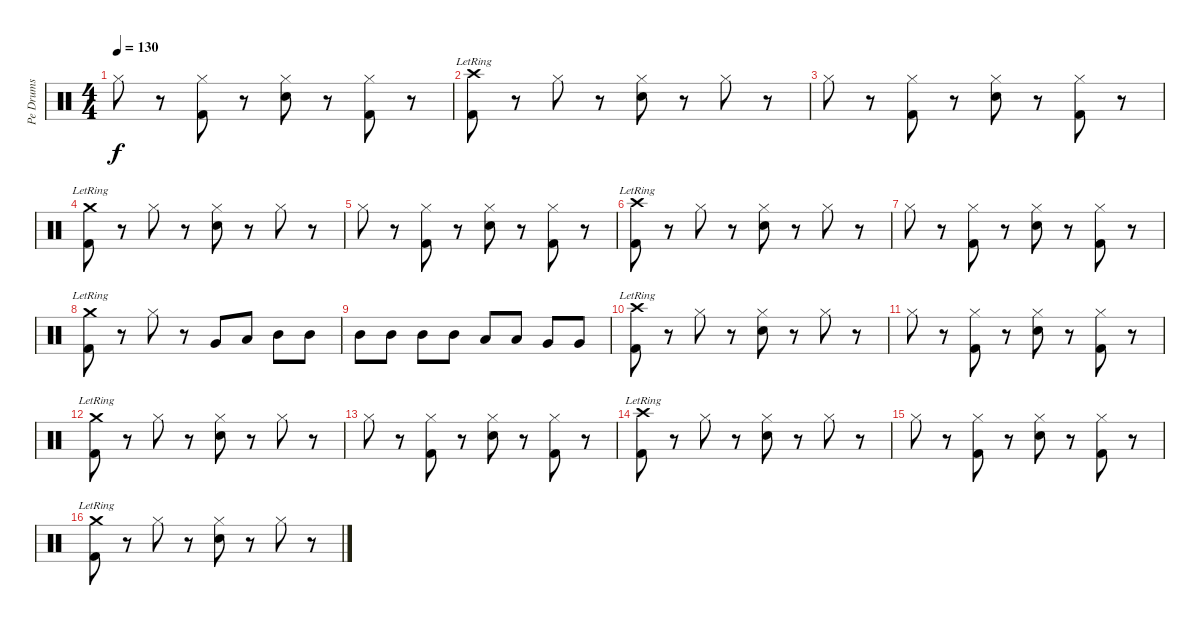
\track ("Pe Drums" "Pe Drums") {instrument percussion}
\staff {score}
\articulation defaults
\ts (4 4)
\tempo 130
\clef neutral
\ks c "Hi-Hat (closed)".8{dy f}
r.8 ("Hi-Hat (closed)" "Kick (hit) 2").8 r.8 ("Hi-Hat (closed)" "Electric Snare (hit)").8 r.8 ("Hi-Hat (closed)" "Kick (hit) 2").8 r.8 |
("Crash high (hit)"{lr} "Kick (hit) 2").8 r.8 "Hi-Hat (closed)".8 r.8 ("Hi-Hat (closed)" "Electric Snare (hit)").8 r.8 "Hi-Hat (closed)".8 r.8 |
"Hi-Hat (closed)".8 r.8 ("Hi-Hat (closed)" "Kick (hit) 2").8 r.8 ("Hi-Hat (closed)" "Electric Snare (hit)").8 r.8 ("Hi-Hat (closed)" "Kick (hit) 2").8 r.8 |
("Crash medium (hit)"{lr} "Kick (hit) 2").8 r.8 "Hi-Hat (closed)".8 r.8 ("Hi-Hat (closed)" "Electric Snare (hit)").8 r.8 "Hi-Hat (closed)".8 r.8 |
"Hi-Hat (closed)".8 r.8 ("Hi-Hat (closed)" "Kick (hit) 2").8 r.8 ("Hi-Hat (closed)" "Electric Snare (hit)").8 r.8 ("Hi-Hat (closed)" "Kick (hit) 2").8 r.8 |
("Crash high (hit)"{lr} "Kick (hit) 2").8 r.8 "Hi-Hat (closed)".8 r.8 ("Hi-Hat (closed)" "Electric Snare (hit)").8 r.8 "Hi-Hat (closed)".8 r.8 |
"Hi-Hat (closed)".8 r.8 ("Hi-Hat (closed)" "Kick (hit) 2").8 r.8 ("Hi-Hat (closed)" "Electric Snare (hit)").8 r.8 ("Hi-Hat (closed)" "Kick (hit) 2").8 r.8 |
("Crash medium (hit)"{lr} "Kick (hit) 2").8 r.8 "Hi-Hat (closed)".8 r.8 "Very Low Tom (hit)".8 "Low Tom (hit)".8 "Mid Tom (hit)".8 "Mid Tom (hit)".8 |
"Mid Tom (hit)".8 "Mid Tom (hit)".8 "Mid Tom (hit)".8 "Mid Tom (hit)".8 "Low Tom (hit)".8 "Low Tom (hit)".8 "Very Low Tom (hit)".8 "Very Low Tom (hit)".8 |
("Crash high (hit)"{lr} "Kick (hit) 2").8 r.8 "Hi-Hat (closed)".8 r.8 ("Hi-Hat (closed)" "Electric Snare (hit)").8 r.8 "Hi-Hat (closed)".8 r.8 |
"Hi-Hat (closed)".8 r.8 ("Hi-Hat (closed)" "Kick (hit) 2").8 r.8 ("Hi-Hat (closed)" "Electric Snare (hit)").8 r.8 ("Hi-Hat (closed)" "Kick (hit) 2").8 r.8 |
("Crash medium (hit)"{lr} "Kick (hit) 2").8 r.8 "Hi-Hat (closed)".8 r.8 ("Hi-Hat (closed)" "Electric Snare (hit)").8 r.8 "Hi-Hat (closed)".8 r.8 |
"Hi-Hat (closed)".8 r.8 ("Hi-Hat (closed)" "Kick (hit) 2").8 r.8 ("Hi-Hat (closed)" "Electric Snare (hit)").8 r.8 ("Hi-Hat (closed)" "Kick (hit) 2").8 r.8 |
("Crash high (hit)"{lr} "Kick (hit) 2").8 r.8 "Hi-Hat (closed)".8 r.8 ("Hi-Hat (closed)" "Electric Snare (hit)").8 r.8 "Hi-Hat (closed)".8 r.8 |
"Hi-Hat (closed)".8 r.8 ("Hi-Hat (closed)" "Kick (hit) 2").8 r.8 ("Hi-Hat (closed)" "Electric Snare (hit)").8 r.8 ("Hi-Hat (closed)" "Kick (hit) 2").8 r.8 |
("Crash medium (hit)"{lr} "Kick (hit) 2").8 r.8 "Hi-Hat (closed)".8 r.8 ("Hi-Hat (closed)" "Electric Snare (hit)").8 r.8 "Hi-Hat (closed)".8 r.8
